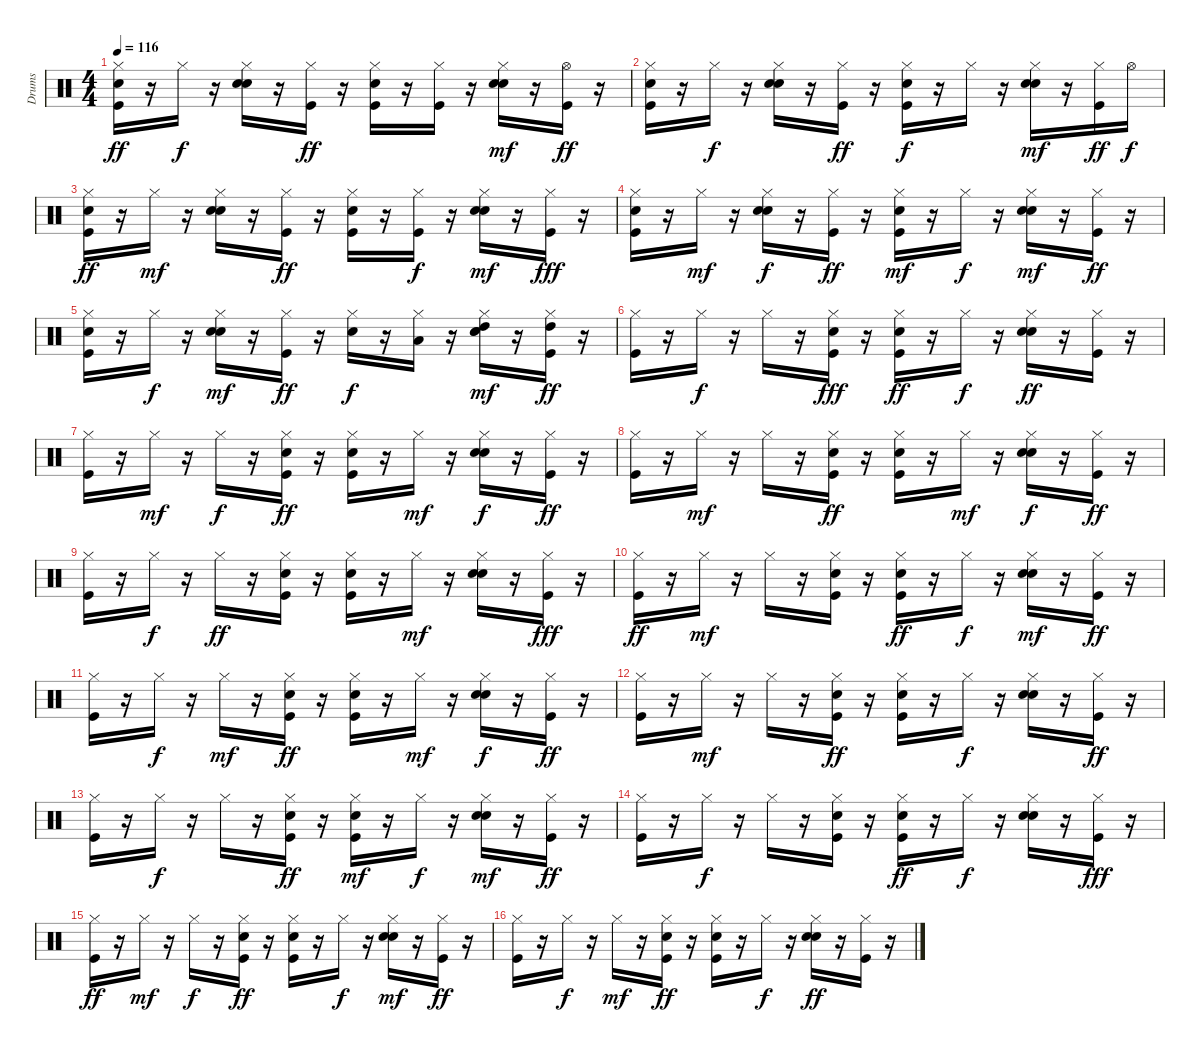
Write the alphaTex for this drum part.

\track ("Drums   " "Drums   ") {instrument percussion}
\staff {score}
\articulation defaults
\ts (4 4)
\tempo 116
\clef neutral
\ks c
("Hi-Hat (closed)" "Kick (hit)" "Hand Clap (hit)").16{dy ff} r.16 "Hi-Hat (closed)".16{dy f} r.16 ("Snare (hit) 2" "Hi-Hat (closed)" "Hand Clap (hit)").16 r.16 ("Hi-Hat (closed)" "Kick (hit)").16{dy ff} r.16 ("Hi-Hat (closed)" "Kick (hit)" "Hand Clap (hit)").16 r.16 ("Hi-Hat (closed)" "Kick (hit)").16 r.16 ("Snare (hit) 2" "Hi-Hat (closed)" "Hand Clap (hit)").16{dy mf} r.16 ("Hi-Hat (open)" "Kick (hit)").16{dy ff} r.16 |
("Hi-Hat (closed)" "Kick (hit)" "Hand Clap (hit)").16 r.16 "Hi-Hat (closed)".16{dy f} r.16 ("Snare (hit) 2" "Hi-Hat (closed)" "Hand Clap (hit)").16 r.16 ("Hi-Hat (closed)" "Kick (hit)").16{dy ff} r.16 ("Hi-Hat (closed)" "Kick (hit)" "Hand Clap (hit)").16{dy f} r.16 "Hi-Hat (closed)".16 r.16 ("Snare (hit) 2" "Hi-Hat (closed)" "Hand Clap (hit)").16{dy mf} r.16 ("Hi-Hat (closed)" "Kick (hit)").16{dy ff} "Hi-Hat (open)".16{dy f} |
("Hi-Hat (closed)" "Kick (hit)" "Hand Clap (hit)").16{dy ff} r.16 "Hi-Hat (closed)".16{dy mf} r.16 ("Snare (hit) 2" "Hi-Hat (closed)" "Hand Clap (hit)").16 r.16 ("Hi-Hat (closed)" "Kick (hit)").16{dy ff} r.16 ("Hi-Hat (closed)" "Kick (hit)" "Hand Clap (hit)").16 r.16 ("Hi-Hat (closed)" "Kick (hit)").16{dy f} r.16 ("Snare (hit) 2" "Hi-Hat (closed)" "Hand Clap (hit)").16{dy mf} r.16 ("Hi-Hat (closed)" "Kick (hit)").16{dy fff} r.16 |
("Hi-Hat (closed)" "Kick (hit)" "Hand Clap (hit)").16 r.16 "Hi-Hat (closed)".16{dy mf} r.16 ("Snare (hit) 2" "Hi-Hat (closed)" "Hand Clap (hit)").16{dy f} r.16 ("Hi-Hat (closed)" "Kick (hit)").16{dy ff} r.16 ("Hi-Hat (closed)" "Kick (hit)" "Hand Clap (hit)").16{dy mf} r.16 "Hi-Hat (closed)".16{dy f} r.16 ("Snare (hit) 2" "Hi-Hat (closed)" "Hand Clap (hit)").16{dy mf} r.16 ("Hi-Hat (closed)" "Kick (hit)").16{dy ff} r.16 |
("Hi-Hat (closed)" "Kick (hit)" "Hand Clap (hit)").16 r.16 "Hi-Hat (closed)".16{dy f} r.16 ("Snare (hit) 2" "Hi-Hat (closed)" "Hand Clap (hit)").16{dy mf} r.16 ("Hi-Hat (closed)" "Kick (hit)").16{dy ff} r.16 ("Hi-Hat (closed)" "Hand Clap (hit)").16{dy f} r.16 ("Hi-Hat (closed)" "Low Tom (hit)").16 r.16 ("Snare (hit) 2" "Hi-Hat (closed)" "High Tom (hit)" "Hand Clap (hit)").16{dy mf} r.16 ("Hi-Hat (closed)" "High Tom (hit)" "Kick (hit)").16{dy ff} r.16 |
("Hi-Hat (closed)" "Kick (hit)").16 r.16 "Hi-Hat (closed)".16{dy f} r.16 "Hi-Hat (closed)".16 r.16 ("Hi-Hat (closed)" "Hand Clap (hit)" "Kick (hit)").16{dy fff} r.16 ("Hi-Hat (closed)" "Hand Clap (hit)" "Kick (hit)").16{dy ff} r.16 "Hi-Hat (closed)".16{dy f} r.16 ("Hi-Hat (closed)" "Hand Clap (hit)" "Snare (hit) 2").16{dy ff} r.16 ("Hi-Hat (closed)" "Kick (hit)").16 r.16 |
("Hi-Hat (closed)" "Kick (hit)").16 r.16 "Hi-Hat (closed)".16{dy mf} r.16 "Hi-Hat (closed)".16{dy f} r.16 ("Hi-Hat (closed)" "Hand Clap (hit)" "Kick (hit)").16{dy ff} r.16 ("Hi-Hat (closed)" "Hand Clap (hit)" "Kick (hit)").16 r.16 "Hi-Hat (closed)".16{dy mf} r.16 ("Hi-Hat (closed)" "Hand Clap (hit)" "Snare (hit) 2").16{dy f} r.16 ("Hi-Hat (closed)" "Kick (hit)").16{dy ff} r.16 |
("Hi-Hat (closed)" "Kick (hit)").16 r.16 "Hi-Hat (closed)".16{dy mf} r.16 "Hi-Hat (closed)".16 r.16 ("Hi-Hat (closed)" "Hand Clap (hit)" "Kick (hit)").16{dy ff} r.16 ("Hi-Hat (closed)" "Hand Clap (hit)" "Kick (hit)").16 r.16 "Hi-Hat (closed)".16{dy mf} r.16 ("Hi-Hat (closed)" "Hand Clap (hit)" "Snare (hit) 2").16{dy f} r.16 ("Hi-Hat (closed)" "Kick (hit)").16{dy ff} r.16 |
("Hi-Hat (closed)" "Kick (hit)").16 r.16 "Hi-Hat (closed)".16{dy f} r.16 "Hi-Hat (closed)".16{dy ff} r.16 ("Hi-Hat (closed)" "Hand Clap (hit)" "Kick (hit)").16 r.16 ("Hi-Hat (closed)" "Hand Clap (hit)" "Kick (hit)").16 r.16 "Hi-Hat (closed)".16{dy mf} r.16 ("Hi-Hat (closed)" "Hand Clap (hit)" "Snare (hit) 2").16 r.16 ("Hi-Hat (closed)" "Kick (hit)").16{dy fff} r.16 |
("Hi-Hat (closed)" "Kick (hit)").16{dy ff} r.16 "Hi-Hat (closed)".16{dy mf} r.16 "Hi-Hat (closed)".16 r.16 ("Hi-Hat (closed)" "Hand Clap (hit)" "Kick (hit)").16 r.16 ("Hi-Hat (closed)" "Hand Clap (hit)" "Kick (hit)").16{dy ff} r.16 "Hi-Hat (closed)".16{dy f} r.16 ("Hi-Hat (closed)" "Hand Clap (hit)" "Snare (hit) 2").16{dy mf} r.16 ("Hi-Hat (closed)" "Kick (hit)").16{dy ff} r.16 |
("Hi-Hat (closed)" "Kick (hit)").16 r.16 "Hi-Hat (closed)".16{dy f} r.16 "Hi-Hat (closed)".16{dy mf} r.16 ("Hi-Hat (closed)" "Hand Clap (hit)" "Kick (hit)").16{dy ff} r.16 ("Hi-Hat (closed)" "Hand Clap (hit)" "Kick (hit)").16 r.16 "Hi-Hat (closed)".16{dy mf} r.16 ("Hi-Hat (closed)" "Hand Clap (hit)" "Snare (hit) 2").16{dy f} r.16 ("Hi-Hat (closed)" "Kick (hit)").16{dy ff} r.16 |
("Hi-Hat (closed)" "Kick (hit)").16 r.16 "Hi-Hat (closed)".16{dy mf} r.16 "Hi-Hat (closed)".16 r.16 ("Hi-Hat (closed)" "Hand Clap (hit)" "Kick (hit)").16{dy ff} r.16 ("Hi-Hat (closed)" "Hand Clap (hit)" "Kick (hit)").16 r.16 "Hi-Hat (closed)".16{dy f} r.16 ("Hi-Hat (closed)" "Hand Clap (hit)" "Snare (hit) 2").16 r.16 ("Hi-Hat (closed)" "Kick (hit)").16{dy ff} r.16 |
("Hi-Hat (closed)" "Kick (hit)").16 r.16 "Hi-Hat (closed)".16{dy f} r.16 "Hi-Hat (closed)".16 r.16 ("Hi-Hat (closed)" "Hand Clap (hit)" "Kick (hit)").16{dy ff} r.16 ("Hi-Hat (closed)" "Hand Clap (hit)" "Kick (hit)").16{dy mf} r.16 "Hi-Hat (closed)".16{dy f} r.16 ("Hi-Hat (closed)" "Hand Clap (hit)" "Snare (hit) 2").16{dy mf} r.16 ("Hi-Hat (closed)" "Kick (hit)").16{dy ff} r.16 |
("Hi-Hat (closed)" "Kick (hit)").16 r.16 "Hi-Hat (closed)".16{dy f} r.16 "Hi-Hat (closed)".16 r.16 ("Hi-Hat (closed)" "Hand Clap (hit)" "Kick (hit)").16 r.16 ("Hi-Hat (closed)" "Hand Clap (hit)" "Kick (hit)").16{dy ff} r.16 "Hi-Hat (closed)".16{dy f} r.16 ("Hi-Hat (closed)" "Hand Clap (hit)" "Snare (hit) 2").16 r.16 ("Hi-Hat (closed)" "Kick (hit)").16{dy fff} r.16 |
("Hi-Hat (closed)" "Kick (hit)").16{dy ff volume 14} r.16 "Hi-Hat (closed)".16{dy mf volume 13} r.16 "Hi-Hat (closed)".16{dy f volume 13} r.16 ("Hi-Hat (closed)" "Hand Clap (hit)" "Kick (hit)").16{dy ff volume 13} r.16 ("Hi-Hat (closed)" "Hand Clap (hit)" "Kick (hit)").16{volume 12} r.16 "Hi-Hat (closed)".16{dy f volume 12} r.16 ("Hi-Hat (closed)" "Hand Clap (hit)" "Snare (hit) 2").16{dy mf volume 12} r.16 ("Hi-Hat (closed)" "Kick (hit)").16{dy ff volume 12} r.16 |
("Hi-Hat (closed)" "Kick (hit)").16{volume 12} r.16 "Hi-Hat (closed)".16{dy f volume 11} r.16 "Hi-Hat (closed)".16{dy mf volume 11} r.16 ("Hi-Hat (closed)" "Hand Clap (hit)" "Kick (hit)").16{dy ff volume 11} r.16 ("Hi-Hat (closed)" "Hand Clap (hit)" "Kick (hit)").16{volume 10} r.16 "Hi-Hat (closed)".16{dy f volume 10} r.16 ("Hi-Hat (closed)" "Hand Clap (hit)" "Snare (hit) 2").16{dy ff volume 10} r.16 ("Hi-Hat (closed)" "Kick (hit)").16{volume 10} r.16
